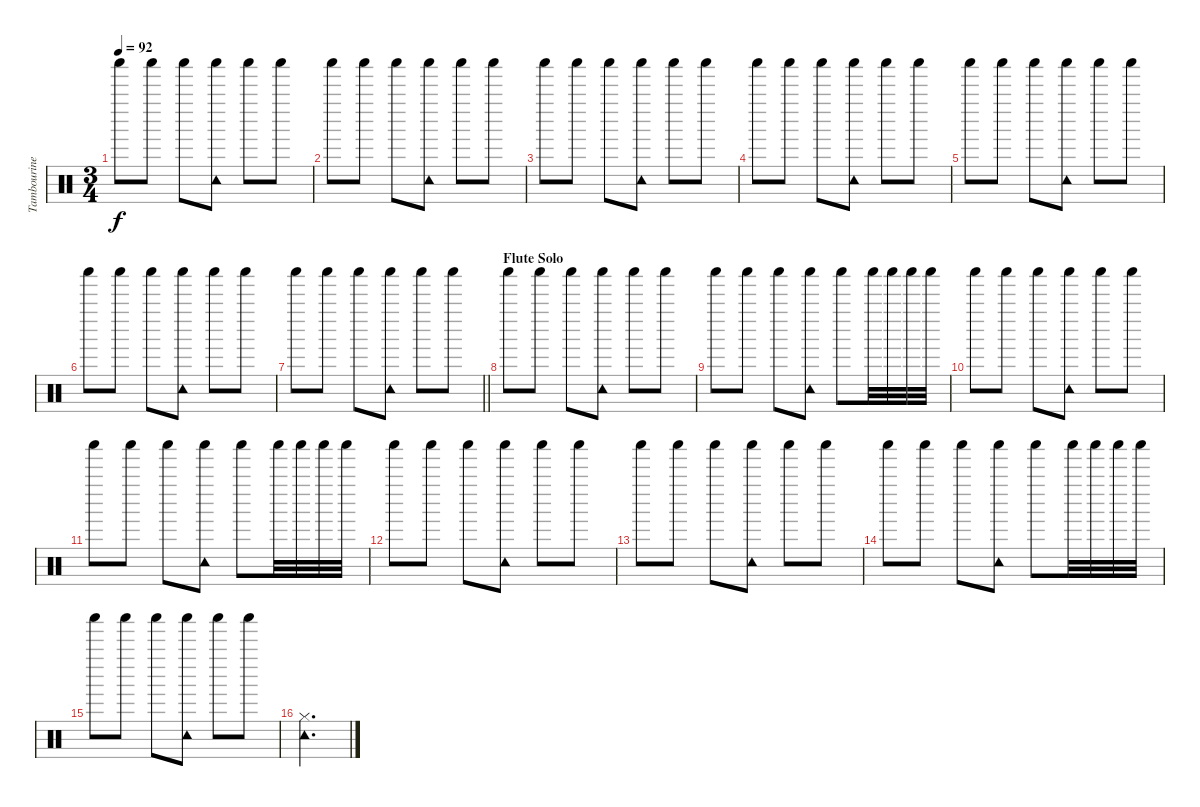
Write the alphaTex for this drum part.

\track ("Tambourine" "Tambourine") {instrument percussion}
\staff {score}
\articulation defaults
\ts (3 4)
\tempo 92
\clef neutral
\ks c "Shaker (hit)".8{dy f} "Shaker (hit)".8 "Shaker (hit)".8
("Tambourine (hit)" "Shaker (hit)").8 "Shaker (hit)".8 "Shaker (hit)".8 |
"Shaker (hit)".8 "Shaker (hit)".8 "Shaker (hit)".8 ("Tambourine (hit)" "Shaker (hit)").8 "Shaker (hit)".8 "Shaker (hit)".8 |
"Shaker (hit)".8 "Shaker (hit)".8 "Shaker (hit)".8 ("Tambourine (hit)" "Shaker (hit)").8 "Shaker (hit)".8 "Shaker (hit)".8 |
"Shaker (hit)".8 "Shaker (hit)".8 "Shaker (hit)".8 ("Tambourine (hit)" "Shaker (hit)").8 "Shaker (hit)".8 "Shaker (hit)".8 |
"Shaker (hit)".8 "Shaker (hit)".8 "Shaker (hit)".8 ("Tambourine (hit)" "Shaker (hit)").8 "Shaker (hit)".8 "Shaker (hit)".8 |
"Shaker (hit)".8 "Shaker (hit)".8 "Shaker (hit)".8 ("Tambourine (hit)" "Shaker (hit)").8 "Shaker (hit)".8 "Shaker (hit)".8 |
\barLineRight lightlight "Shaker (hit)".8 "Shaker (hit)".8 "Shaker (hit)".8
("Tambourine (hit)" "Shaker (hit)").8 "Shaker (hit)".8 "Shaker (hit)".8 |
\section ("" "Flute Solo")
"Shaker (hit)".8 "Shaker (hit)".8 "Shaker (hit)".8 ("Tambourine (hit)" "Shaker (hit)").8 "Shaker (hit)".8 "Shaker (hit)".8 |
"Shaker (hit)".8 "Shaker (hit)".8 "Shaker (hit)".8 ("Tambourine (hit)" "Shaker (hit)").8 "Shaker (hit)".8 "Shaker (hit)".32 "Shaker (hit)".32 "Shaker (hit)".32 "Shaker (hit)".32 |
"Shaker (hit)".8 "Shaker (hit)".8 "Shaker (hit)".8 ("Tambourine (hit)" "Shaker (hit)").8 "Shaker (hit)".8 "Shaker (hit)".8 |
"Shaker (hit)".8 "Shaker (hit)".8 "Shaker (hit)".8 ("Tambourine (hit)" "Shaker (hit)").8 "Shaker (hit)".8 "Shaker (hit)".32 "Shaker (hit)".32 "Shaker (hit)".32 "Shaker (hit)".32 |
"Shaker (hit)".8 "Shaker (hit)".8 "Shaker (hit)".8 ("Tambourine (hit)" "Shaker (hit)").8 "Shaker (hit)".8 "Shaker (hit)".8 |
"Shaker (hit)".8 "Shaker (hit)".8 "Shaker (hit)".8 ("Tambourine (hit)" "Shaker (hit)").8 "Shaker (hit)".8 "Shaker (hit)".8 |
"Shaker (hit)".8 "Shaker (hit)".8 "Shaker (hit)".8 ("Tambourine (hit)" "Shaker (hit)").8 "Shaker (hit)".8 "Shaker (hit)".32 "Shaker (hit)".32 "Shaker (hit)".32 "Shaker (hit)".32 |
"Shaker (hit)".8 "Shaker (hit)".8 "Shaker (hit)".8 ("Tambourine (hit)" "Shaker (hit)").8 "Shaker (hit)".8 "Shaker (hit)".8 |
("Tambourine (hit)" "Hi-Hat (closed)").2{d}
